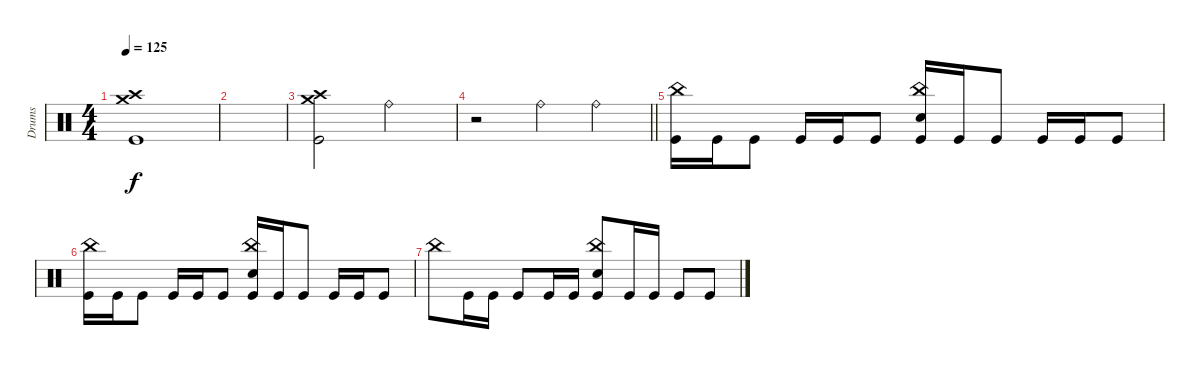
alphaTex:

\track ("Drums" "Drums") {instrument percussion}
\staff
\articulation defaults
\ts (4 4)
\tempo 125
\clef neutral
\ks c
("Crash high (hit)" "Crash medium (hit)" "Kick (hit)").1{dy f} |
|
("Crash high (hit)" "Crash medium (hit)" "Kick (hit)").2 "Ride (bell)".2 |
\barLineRight lightlight
r.2 "Ride (bell)".4 "Ride (bell)".4 |
\section ("" "")
("China (hit)" "Kick (hit)").16 "Kick (hit)".16 "Kick (hit)".8 "Kick (hit)".16 "Kick (hit)".16 "Kick (hit)".8 ("China (hit)" "Electric Snare (hit)" "Kick (hit)").16 "Kick (hit)".16 "Kick (hit)".8 "Kick (hit)".16 "Kick (hit)".16 "Kick (hit)".8 |
("China (hit)" "Kick (hit)").16 "Kick (hit)".16 "Kick (hit)".8 "Kick (hit)".16 "Kick (hit)".16 "Kick (hit)".8 ("China (hit)" "Electric Snare (hit)" "Kick (hit)").16 "Kick (hit)".16 "Kick (hit)".8 "Kick (hit)".16 "Kick (hit)".16 "Kick (hit)".8 |
"China (hit)".8 "Kick (hit)".16 "Kick (hit)".16 "Kick (hit)".8 "Kick (hit)".16 "Kick (hit)".16 ("China (hit)" "Electric Snare (hit)" "Kick (hit)").8 "Kick (hit)".16 "Kick (hit)".16 "Kick (hit)".8 "Kick (hit)".8
